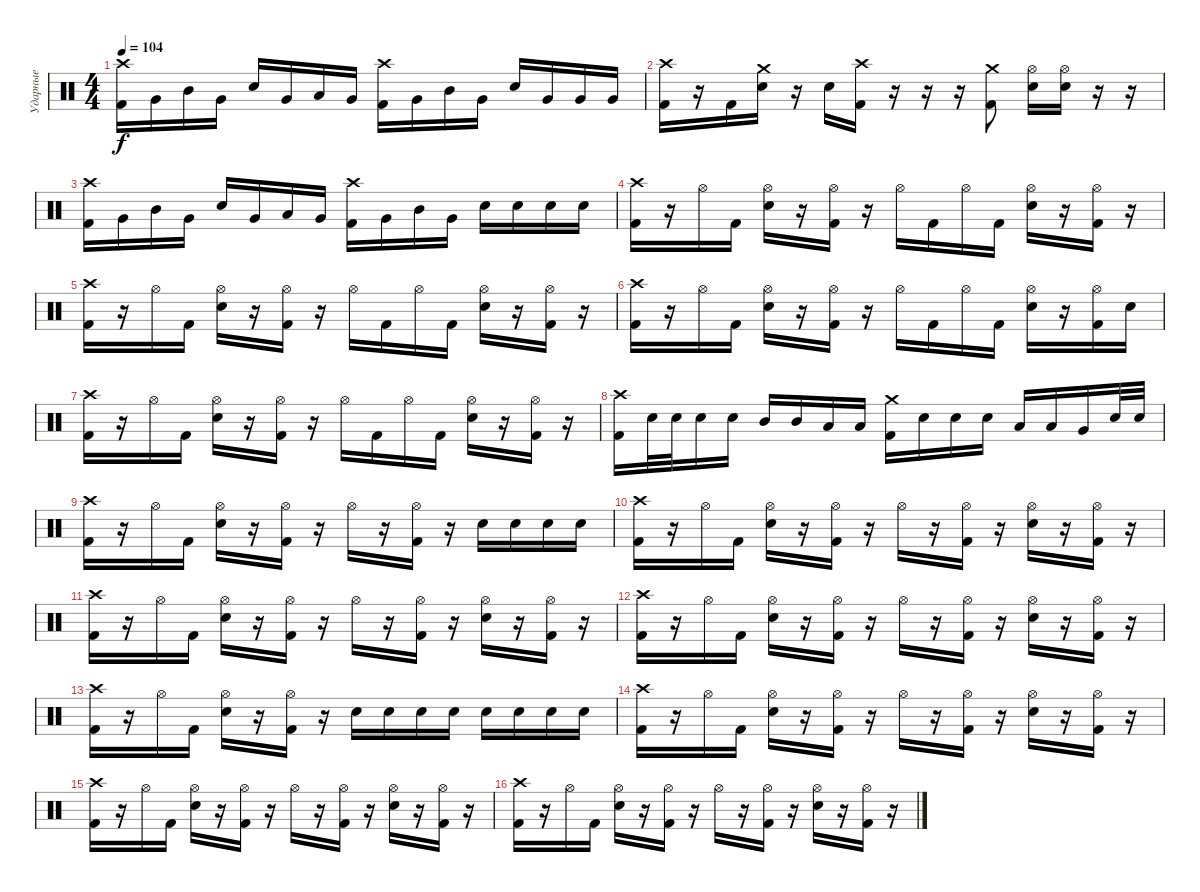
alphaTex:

\track ("Ударные" "Ударные") {instrument percussion}
\staff {score}
\articulation defaults
\ts (4 4)
\tempo 104
\clef neutral
\ks c
("Crash high (hit)" "Kick (hit) 2").16{dy f} "Very Low Tom (hit)".16 "Mid Tom (hit)".16 "Very Low Tom (hit)".16 "Snare (hit) 2".16 "Very Low Tom (hit)".16 "Low Tom (hit)".16 "Very Low Tom (hit)".16 ("Crash high (hit)" "Kick (hit) 2").16 "Very Low Tom (hit)".16 "Mid Tom (hit)".16 "Very Low Tom (hit)".16 "Snare (hit) 2".16 "Very Low Tom (hit)".16 "Very Low Tom (hit)".16 "Very Low Tom (hit)".16 |
("Crash high (hit)" "Kick (hit) 2").16 r.16 "Kick (hit) 2".16 ("Crash medium (hit)" "Snare (hit) 2").16 r.16 "Snare (hit) 2".16 ("Crash high (hit)" "Kick (hit) 2").16 r.16 r.16 r.16 ("Crash medium (hit)" "Kick (hit) 2").8 ("Hi-Hat (open)" "Snare (hit) 2").16 ("Hi-Hat (open)" "Snare (hit) 2").16 r.16 r.16 |
("Crash high (hit)" "Kick (hit) 2").16 "Very Low Tom (hit)".16 "Mid Tom (hit)".16 "Very Low Tom (hit)".16 "Snare (hit) 2".16 "Very Low Tom (hit)".16 "Low Tom (hit)".16 "Very Low Tom (hit)".16 ("Crash high (hit)" "Kick (hit) 2").16 "Very Low Tom (hit)".16 "Mid Tom (hit)".16 "Very Low Tom (hit)".16 "Snare (hit) 2".16 "Snare (hit) 2".16 "Snare (hit) 2".16 "Snare (hit) 2".16 |
("Crash high (hit)" "Kick (hit) 2").16 r.16 "Hi-Hat (open)".16 "Kick (hit) 2".16 ("Hi-Hat (open)" "Snare (hit) 2").16 r.16 ("Hi-Hat (open)" "Kick (hit) 2").16 r.16 "Hi-Hat (open)".16 "Kick (hit) 2".16 "Hi-Hat (open)".16 "Kick (hit) 2".16 ("Hi-Hat (open)" "Snare (hit) 2").16 r.16 ("Hi-Hat (open)" "Kick (hit) 2").16 r.16 |
("Crash high (hit)" "Kick (hit) 2").16 r.16 "Hi-Hat (open)".16 "Kick (hit) 2".16 ("Hi-Hat (open)" "Snare (hit) 2").16 r.16 ("Hi-Hat (open)" "Kick (hit) 2").16 r.16 "Hi-Hat (open)".16 "Kick (hit) 2".16 "Hi-Hat (open)".16 "Kick (hit) 2".16 ("Hi-Hat (open)" "Snare (hit) 2").16 r.16 ("Hi-Hat (open)" "Kick (hit) 2").16 r.16 |
("Crash high (hit)" "Kick (hit) 2").16 r.16 "Hi-Hat (open)".16 "Kick (hit) 2".16 ("Hi-Hat (open)" "Snare (hit) 2").16 r.16 ("Hi-Hat (open)" "Kick (hit) 2").16 r.16 "Hi-Hat (open)".16 "Kick (hit) 2".16 "Hi-Hat (open)".16 "Kick (hit) 2".16 ("Hi-Hat (open)" "Snare (hit) 2").16 r.16 ("Hi-Hat (open)" "Kick (hit) 2").16 "Snare (hit) 2".16 |
("Crash high (hit)" "Kick (hit) 2").16 r.16 "Hi-Hat (open)".16 "Kick (hit) 2".16 ("Hi-Hat (open)" "Snare (hit) 2").16 r.16 ("Hi-Hat (open)" "Kick (hit) 2").16 r.16 "Hi-Hat (open)".16 "Kick (hit) 2".16 "Hi-Hat (open)".16 "Kick (hit) 2".16 ("Hi-Hat (open)" "Snare (hit) 2").16 r.16 ("Hi-Hat (open)" "Kick (hit) 2").16 r.16 |
("Crash high (hit)" "Kick (hit) 2").16 "Snare (hit) 2".32 "Snare (hit) 2".32 "Snare (hit) 2".16 "Snare (hit) 2".16 "Mid Tom (hit)".16 "Mid Tom (hit)".16 "Low Tom (hit)".16 "Low Tom (hit)".16 ("Crash medium (hit)" "Kick (hit) 2").16 "Snare (hit) 2".16 "Snare (hit) 2".16 "Snare (hit) 2".16 "Low Tom (hit)".16 "Low Tom (hit)".16 "Very Low Tom (hit)".16 "Snare (hit) 2".32 "Snare (hit) 2".32 |
("Crash high (hit)" "Kick (hit) 2").16 r.16 "Hi-Hat (open)".16 "Kick (hit) 2".16 ("Hi-Hat (open)" "Snare (hit) 2").16 r.16 ("Hi-Hat (open)" "Kick (hit) 2").16 r.16 "Hi-Hat (open)".16 r.16 ("Hi-Hat (open)" "Kick (hit) 2").16 r.16 "Snare (hit) 2".16 "Snare (hit) 2".16 "Snare (hit) 2".16 "Snare (hit) 2".16 |
("Crash high (hit)" "Kick (hit) 2").16 r.16 "Hi-Hat (open)".16 "Kick (hit) 2".16 ("Hi-Hat (open)" "Snare (hit) 2").16 r.16 ("Hi-Hat (open)" "Kick (hit) 2").16 r.16 "Hi-Hat (open)".16 r.16 ("Hi-Hat (open)" "Kick (hit) 2").16 r.16 ("Hi-Hat (open)" "Snare (hit) 2").16 r.16 ("Hi-Hat (open)" "Kick (hit) 2").16 r.16 |
("Crash high (hit)" "Kick (hit) 2").16 r.16 "Hi-Hat (open)".16 "Kick (hit) 2".16 ("Hi-Hat (open)" "Snare (hit) 2").16 r.16 ("Hi-Hat (open)" "Kick (hit) 2").16 r.16 "Hi-Hat (open)".16 r.16 ("Hi-Hat (open)" "Kick (hit) 2").16 r.16 ("Hi-Hat (open)" "Snare (hit) 2").16 r.16 ("Hi-Hat (open)" "Kick (hit) 2").16 r.16 |
("Crash high (hit)" "Kick (hit) 2").16 r.16 "Hi-Hat (open)".16 "Kick (hit) 2".16 ("Hi-Hat (open)" "Snare (hit) 2").16 r.16 ("Hi-Hat (open)" "Kick (hit) 2").16 r.16 "Hi-Hat (open)".16 r.16 ("Hi-Hat (open)" "Kick (hit) 2").16 r.16 ("Hi-Hat (open)" "Snare (hit) 2").16 r.16 ("Hi-Hat (open)" "Kick (hit) 2").16 r.16 |
("Crash high (hit)" "Kick (hit) 2").16 r.16 "Hi-Hat (open)".16 "Kick (hit) 2".16 ("Hi-Hat (open)" "Snare (hit) 2").16 r.16 ("Hi-Hat (open)" "Kick (hit) 2").16 r.16 "Snare (hit) 2".16 "Snare (hit) 2".16 "Snare (hit) 2".16 "Snare (hit) 2".16 "Snare (hit) 2".16 "Snare (hit) 2".16 "Snare (hit) 2".16 "Snare (hit) 2".16 |
("Crash high (hit)" "Kick (hit) 2").16 r.16 "Hi-Hat (open)".16 "Kick (hit) 2".16 ("Hi-Hat (open)" "Snare (hit) 2").16 r.16 ("Hi-Hat (open)" "Kick (hit) 2").16 r.16 "Hi-Hat (open)".16 r.16 ("Hi-Hat (open)" "Kick (hit) 2").16 r.16 ("Hi-Hat (open)" "Snare (hit) 2").16 r.16 ("Hi-Hat (open)" "Kick (hit) 2").16 r.16 |
("Crash high (hit)" "Kick (hit) 2").16 r.16 "Hi-Hat (open)".16 "Kick (hit) 2".16 ("Hi-Hat (open)" "Snare (hit) 2").16 r.16 ("Hi-Hat (open)" "Kick (hit) 2").16 r.16 "Hi-Hat (open)".16 r.16 ("Hi-Hat (open)" "Kick (hit) 2").16 r.16 ("Hi-Hat (open)" "Snare (hit) 2").16 r.16 ("Hi-Hat (open)" "Kick (hit) 2").16 r.16 |
("Crash high (hit)" "Kick (hit) 2").16 r.16 "Hi-Hat (open)".16 "Kick (hit) 2".16 ("Hi-Hat (open)" "Snare (hit) 2").16 r.16 ("Hi-Hat (open)" "Kick (hit) 2").16 r.16 "Hi-Hat (open)".16 r.16 ("Hi-Hat (open)" "Kick (hit) 2").16 r.16 ("Hi-Hat (open)" "Snare (hit) 2").16 r.16 ("Hi-Hat (open)" "Kick (hit) 2").16 r.16
